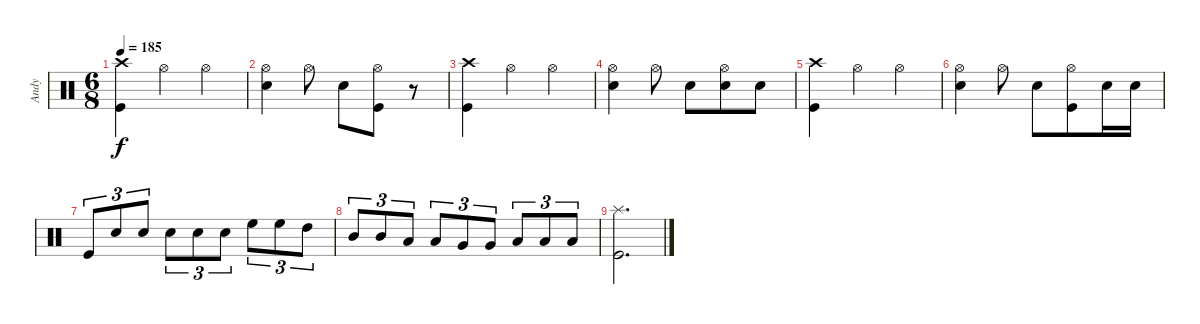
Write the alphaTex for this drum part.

\track ("Andy" "Andy") {instrument percussion}
\staff {score}
\articulation defaults
\ts (6 8)
\tempo 185
\clef neutral
\ks c
("Kick (hit)" "Crash high (hit)").4{dy f} "Hi-Hat (open)".4 "Hi-Hat (open)".4 |
("Hi-Hat (open)" "Snare (hit) 2").4 "Hi-Hat (open)".8 "Snare (hit) 2".8 ("Kick (hit)" "Hi-Hat (open)").8 r.8 |
("Kick (hit)" "Crash high (hit)").4 "Hi-Hat (open)".4 "Hi-Hat (open)".4 |
("Hi-Hat (open)" "Snare (hit) 2").4 "Hi-Hat (open)".8 "Snare (hit) 2".8 ("Snare (hit) 2" "Hi-Hat (open)").8 "Snare (hit) 2".8 |
("Kick (hit)" "Crash high (hit)").4 "Hi-Hat (open)".4 "Hi-Hat (open)".4 |
("Hi-Hat (open)" "Snare (hit) 2").4 "Hi-Hat (open)".8 "Snare (hit) 2".8 ("Kick (hit)" "Hi-Hat (open)").8 "Snare (hit) 2".16 "Snare (hit) 2".16 |
"Kick (hit)".8{tu (3 2)} "Snare (hit) 2".8{tu (3 2)} "Snare (hit) 2".8{tu (3 2)} "Snare (hit) 2".8{tu (3 2)} "Snare (hit) 2".8{tu (3 2)} "Snare (hit) 2".8{tu (3 2)} "High Floor Tom (hit)".8{tu (3 2)} "High Floor Tom (hit)".8{tu (3 2)} "High Tom (hit)".8{tu (3 2)} |
"Mid Tom (hit)".8{tu (3 2)} "Mid Tom (hit)".8{tu (3 2)} "Low Tom (hit)".8{tu (3 2)} "Low Tom (hit)".8{tu (3 2)} "Very Low Tom (hit)".8{tu (3 2)} "Very Low Tom (hit)".8{tu (3 2)} "Low Floor Tom (hit)".8{tu (3 2)} "Low Floor Tom (hit)".8{tu (3 2)} "Low Floor Tom (hit)".8{tu (3 2)} |
("Kick (hit)" "Splash (hit)").2{d}
